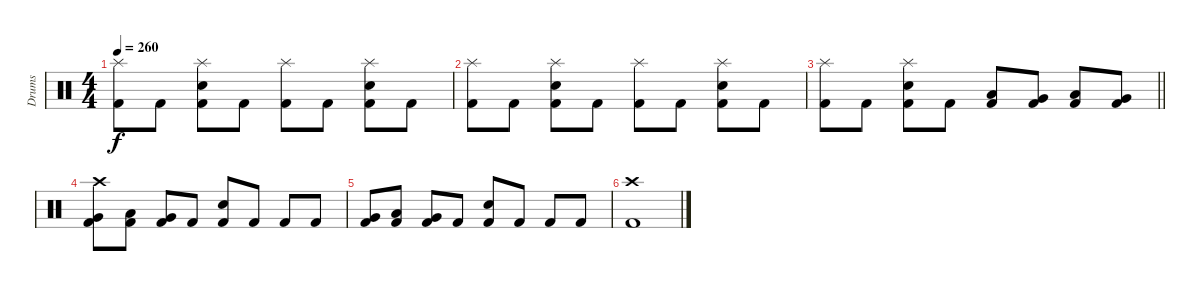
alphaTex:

\track ("Drums" "Drums") {instrument percussion}
\staff {score}
\articulation defaults
\ts (4 4)
\tempo 260
\clef neutral
\ks c
("Splash (hit)" "Kick (hit) 2").8{dy f} "Kick (hit) 2".8 ("Splash (hit)" "Electric Snare (hit)" "Kick (hit) 2").8 "Kick (hit) 2".8 ("Splash (hit)" "Kick (hit) 2").8 "Kick (hit) 2".8 ("Splash (hit)" "Electric Snare (hit)" "Kick (hit) 2").8 "Kick (hit) 2".8 |
("Splash (hit)" "Kick (hit) 2").8 "Kick (hit) 2".8 ("Splash (hit)" "Electric Snare (hit)" "Kick (hit) 2").8 "Kick (hit) 2".8 ("Splash (hit)" "Kick (hit) 2").8 "Kick (hit) 2".8 ("Splash (hit)" "Electric Snare (hit)" "Kick (hit) 2").8 "Kick (hit) 2".8 |
\barLineRight lightlight
("Splash (hit)" "Kick (hit) 2").8 "Kick (hit) 2".8 ("Splash (hit)" "Electric Snare (hit)" "Kick (hit) 2").8 "Kick (hit) 2".8 ("Low Floor Tom (hit)" "Kick (hit) 2").8 ("Very Low Tom (hit)" "Kick (hit) 2").8 ("Low Floor Tom (hit)" "Kick (hit) 2").8 ("Very Low Tom (hit)" "Kick (hit) 2").8 |
("Crash high (hit)" "Very Low Tom (hit)" "Kick (hit) 2").8 ("Low Floor Tom (hit)" "Kick (hit) 2").8 ("Very Low Tom (hit)" "Kick (hit) 2").8 "Kick (hit) 2".8 ("Electric Snare (hit)" "Kick (hit) 2").8 "Kick (hit) 2".8 "Kick (hit) 2".8 "Kick (hit) 2".8 |
("Very Low Tom (hit)" "Kick (hit) 2").8 ("Low Floor Tom (hit)" "Kick (hit) 2").8 ("Very Low Tom (hit)" "Kick (hit) 2").8 "Kick (hit) 2".8 ("Electric Snare (hit)" "Kick (hit) 2").8 "Kick (hit) 2".8 "Kick (hit) 2".8 "Kick (hit) 2".8 |
("Crash high (hit)" "Kick (hit) 2").1
